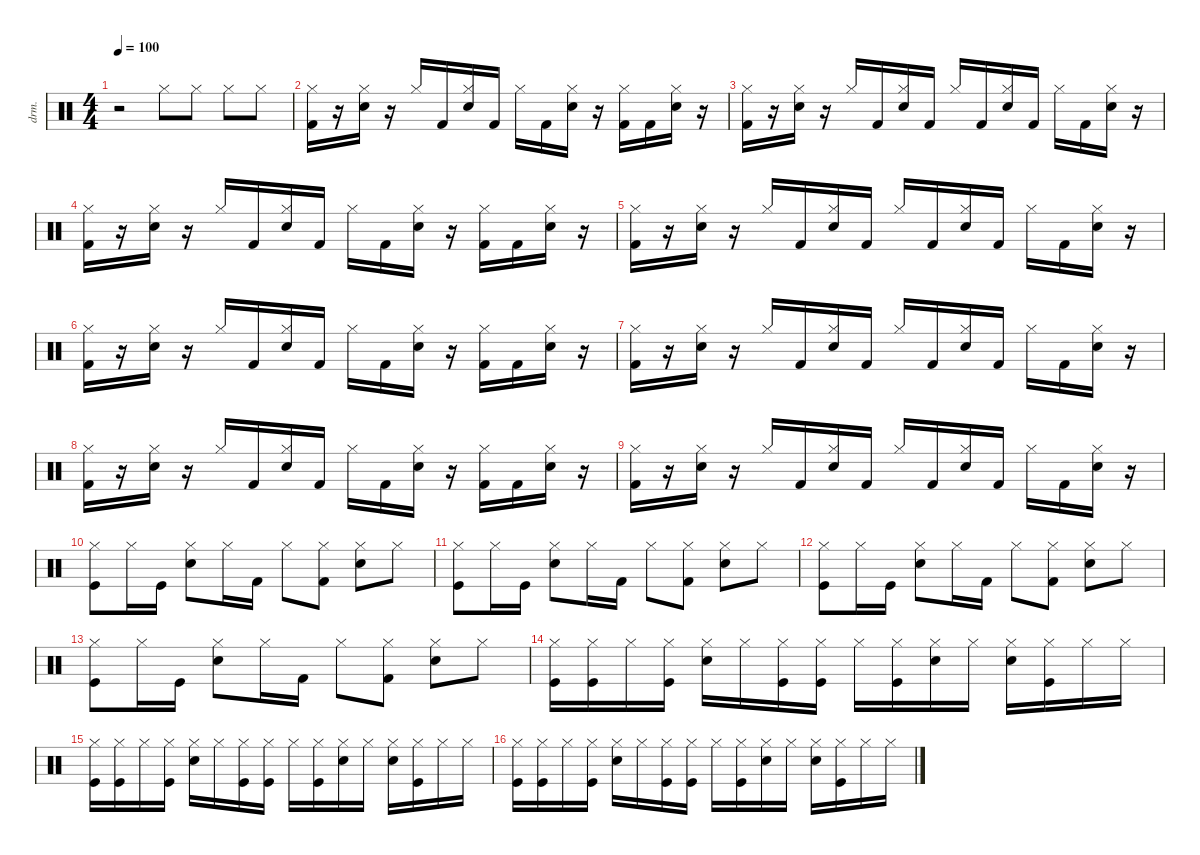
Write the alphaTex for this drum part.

\defaultSystemsLayout 4
\hideDynamics
\bracketExtendMode nobrackets
\otherSystemsTrackNameOrientation horizontal
\track ("Drumkit" "drm.") {instrument percussion}
\staff {score}
\articulation defaults
\ts (4 4)
\tempo 100
\clef neutral
\ks c
r.2{dy mf beam Down} "Hi-Hat (closed)".8{beam Down} "Hi-Hat (closed)".8{beam Down} "Hi-Hat (closed)".8{beam Down} "Hi-Hat (closed)".8{beam Down} |
("Hi-Hat (closed)" "Kick (hit) 2").16{beam Down} r.16{beam Down} ("Hi-Hat (closed)" "Snare (hit) 2").16{beam Down} r.16{beam Down} "Hi-Hat (closed)".16{beam Up} "Kick (hit) 2".16{beam Up} ("Hi-Hat (closed)" "Snare (hit) 2").16{beam Up} "Kick (hit) 2".16{beam Up} "Hi-Hat (closed)".16{beam Down} "Kick (hit) 2".16{beam Down} ("Hi-Hat (closed)" "Snare (hit) 2").16{beam Down} r.16{beam Down} ("Hi-Hat (closed)" "Kick (hit) 2").16{beam Down} "Kick (hit) 2".16{beam Down} ("Hi-Hat (closed)" "Snare (hit) 2").16{beam Down} r.16{beam Down} |
("Hi-Hat (closed)" "Kick (hit) 2").16{beam Down} r.16{beam Down} ("Hi-Hat (closed)" "Snare (hit) 2").16{beam Down} r.16{beam Down} "Hi-Hat (closed)".16{beam Up} "Kick (hit) 2".16{beam Up} ("Hi-Hat (closed)" "Snare (hit) 2").16{beam Up} "Kick (hit) 2".16{beam Up} "Hi-Hat (closed)".16{beam Up} "Kick (hit) 2".16{beam Up} ("Hi-Hat (closed)" "Snare (hit) 2").16{beam Up} "Kick (hit) 2".16{beam Up} "Hi-Hat (closed)".16{beam Down} "Kick (hit) 2".16{beam Down} ("Hi-Hat (closed)" "Snare (hit) 2").16{beam Down} r.16{beam Down} |
("Hi-Hat (closed)" "Kick (hit) 2").16{beam Down} r.16{beam Down} ("Hi-Hat (closed)" "Snare (hit) 2").16{beam Down} r.16{beam Down} "Hi-Hat (closed)".16{beam Up} "Kick (hit) 2".16{beam Up} ("Hi-Hat (closed)" "Snare (hit) 2").16{beam Up} "Kick (hit) 2".16{beam Up} "Hi-Hat (closed)".16{beam Down} "Kick (hit) 2".16{beam Down} ("Hi-Hat (closed)" "Snare (hit) 2").16{beam Down} r.16{beam Down} ("Hi-Hat (closed)" "Kick (hit) 2").16{beam Down} "Kick (hit) 2".16{beam Down} ("Hi-Hat (closed)" "Snare (hit) 2").16{beam Down} r.16{beam Down} |
("Hi-Hat (closed)" "Kick (hit) 2").16{beam Down} r.16{beam Down} ("Hi-Hat (closed)" "Snare (hit) 2").16{beam Down} r.16{beam Down} "Hi-Hat (closed)".16{beam Up} "Kick (hit) 2".16{beam Up} ("Hi-Hat (closed)" "Snare (hit) 2").16{beam Up} "Kick (hit) 2".16{beam Up} "Hi-Hat (closed)".16{beam Up} "Kick (hit) 2".16{beam Up} ("Hi-Hat (closed)" "Snare (hit) 2").16{beam Up} "Kick (hit) 2".16{beam Up} "Hi-Hat (closed)".16{beam Down} "Kick (hit) 2".16{beam Down} ("Hi-Hat (closed)" "Snare (hit) 2").16{beam Down} r.16{beam Down} |
("Hi-Hat (closed)" "Kick (hit) 2").16{beam Down} r.16{beam Down} ("Hi-Hat (closed)" "Snare (hit) 2").16{beam Down} r.16{beam Down} "Hi-Hat (closed)".16{beam Up} "Kick (hit) 2".16{beam Up} ("Hi-Hat (closed)" "Snare (hit) 2").16{beam Up} "Kick (hit) 2".16{beam Up} "Hi-Hat (closed)".16{beam Down} "Kick (hit) 2".16{beam Down} ("Hi-Hat (closed)" "Snare (hit) 2").16{beam Down} r.16{beam Down} ("Hi-Hat (closed)" "Kick (hit) 2").16{beam Down} "Kick (hit) 2".16{beam Down} ("Hi-Hat (closed)" "Snare (hit) 2").16{beam Down} r.16{beam Down} |
("Hi-Hat (closed)" "Kick (hit) 2").16{beam Down} r.16{beam Down} ("Hi-Hat (closed)" "Snare (hit) 2").16{beam Down} r.16{beam Down} "Hi-Hat (closed)".16{beam Up} "Kick (hit) 2".16{beam Up} ("Hi-Hat (closed)" "Snare (hit) 2").16{beam Up} "Kick (hit) 2".16{beam Up} "Hi-Hat (closed)".16{beam Up} "Kick (hit) 2".16{beam Up} ("Hi-Hat (closed)" "Snare (hit) 2").16{beam Up} "Kick (hit) 2".16{beam Up} "Hi-Hat (closed)".16{beam Down} "Kick (hit) 2".16{beam Down} ("Hi-Hat (closed)" "Snare (hit) 2").16{beam Down} r.16{beam Down} |
("Hi-Hat (closed)" "Kick (hit) 2").16{beam Down} r.16{beam Down} ("Hi-Hat (closed)" "Snare (hit) 2").16{beam Down} r.16{beam Down} "Hi-Hat (closed)".16{beam Up} "Kick (hit) 2".16{beam Up} ("Hi-Hat (closed)" "Snare (hit) 2").16{beam Up} "Kick (hit) 2".16{beam Up} "Hi-Hat (closed)".16{beam Down} "Kick (hit) 2".16{beam Down} ("Hi-Hat (closed)" "Snare (hit) 2").16{beam Down} r.16{beam Down} ("Hi-Hat (closed)" "Kick (hit) 2").16{beam Down} "Kick (hit) 2".16{beam Down} ("Hi-Hat (closed)" "Snare (hit) 2").16{beam Down} r.16{beam Down} |
("Hi-Hat (closed)" "Kick (hit) 2").16{beam Down} r.16{beam Down} ("Hi-Hat (closed)" "Snare (hit) 2").16{beam Down} r.16{beam Down} "Hi-Hat (closed)".16{beam Up} "Kick (hit) 2".16{beam Up} ("Hi-Hat (closed)" "Snare (hit) 2").16{beam Up} "Kick (hit) 2".16{beam Up} "Hi-Hat (closed)".16{beam Up} "Kick (hit) 2".16{beam Up} ("Hi-Hat (closed)" "Snare (hit) 2").16{beam Up} "Kick (hit) 2".16{beam Up} "Hi-Hat (closed)".16{beam Down} "Kick (hit) 2".16{beam Down} ("Hi-Hat (closed)" "Snare (hit) 2").16{beam Down} r.16{beam Down} |
("Kick (hit)" "Hi-Hat (closed)").8{beam Down} "Hi-Hat (closed)".16{beam Down} "Kick (hit)".16{beam Down} ("Snare (hit) 2" "Hi-Hat (closed)").8{beam Down} "Hi-Hat (closed)".16{beam Down} "Kick (hit) 2".16{beam Down} "Hi-Hat (closed)".8{beam Down} ("Kick (hit) 2" "Hi-Hat (closed)").8{beam Down} ("Hi-Hat (closed)" "Snare (hit) 2").8{beam Down} "Hi-Hat (closed)".8{beam Down} |
("Kick (hit)" "Hi-Hat (closed)").8{beam Down} "Hi-Hat (closed)".16{beam Down} "Kick (hit)".16{beam Down} ("Snare (hit) 2" "Hi-Hat (closed)").8{beam Down} "Hi-Hat (closed)".16{beam Down} "Kick (hit) 2".16{beam Down} "Hi-Hat (closed)".8{beam Down} ("Kick (hit) 2" "Hi-Hat (closed)").8{beam Down} ("Hi-Hat (closed)" "Snare (hit) 2").8{beam Down} "Hi-Hat (closed)".8{beam Down} |
("Kick (hit)" "Hi-Hat (closed)").8{beam Down} "Hi-Hat (closed)".16{beam Down} "Kick (hit)".16{beam Down} ("Snare (hit) 2" "Hi-Hat (closed)").8{beam Down} "Hi-Hat (closed)".16{beam Down} "Kick (hit) 2".16{beam Down} "Hi-Hat (closed)".8{beam Down} ("Kick (hit) 2" "Hi-Hat (closed)").8{beam Down} ("Hi-Hat (closed)" "Snare (hit) 2").8{beam Down} "Hi-Hat (closed)".8{beam Down} |
("Kick (hit)" "Hi-Hat (closed)").8{beam Down} "Hi-Hat (closed)".16{beam Down} "Kick (hit)".16{beam Down} ("Snare (hit) 2" "Hi-Hat (closed)").8{beam Down} "Hi-Hat (closed)".16{beam Down} "Kick (hit) 2".16{beam Down} "Hi-Hat (closed)".8{beam Down} ("Kick (hit) 2" "Hi-Hat (closed)").8{beam Down} ("Hi-Hat (closed)" "Snare (hit) 2").8{beam Down} "Hi-Hat (closed)".8{beam Down} |
("Kick (hit)" "Hi-Hat (closed)").16{beam Down} ("Kick (hit)" "Hi-Hat (closed)").16{beam Down} "Hi-Hat (closed)".16{beam Down} ("Kick (hit)" "Hi-Hat (closed)").16{beam Down} ("Snare (hit) 2" "Hi-Hat (closed)").16{beam Down} "Hi-Hat (closed)".16{beam Down} ("Hi-Hat (closed)" "Kick (hit)").16{beam Down} ("Hi-Hat (closed)" "Kick (hit)").16{beam Down} "Hi-Hat (closed)".16{beam Down} ("Hi-Hat (closed)" "Kick (hit)").16{beam Down} ("Hi-Hat (closed)" "Snare (hit) 2").16{beam Down} "Hi-Hat (closed)".16{beam Down} ("Hi-Hat (closed)" "Snare (hit) 2").16{beam Down} ("Hi-Hat (closed)" "Kick (hit)").16{beam Down} "Hi-Hat (closed)".16{beam Down} "Hi-Hat (closed)".16{beam Down} |
("Kick (hit)" "Hi-Hat (closed)").16{beam Down} ("Kick (hit)" "Hi-Hat (closed)").16{beam Down} "Hi-Hat (closed)".16{beam Down} ("Kick (hit)" "Hi-Hat (closed)").16{beam Down} ("Snare (hit) 2" "Hi-Hat (closed)").16{beam Down} "Hi-Hat (closed)".16{beam Down} ("Hi-Hat (closed)" "Kick (hit)").16{beam Down} ("Hi-Hat (closed)" "Kick (hit)").16{beam Down} "Hi-Hat (closed)".16{beam Down} ("Hi-Hat (closed)" "Kick (hit)").16{beam Down} ("Hi-Hat (closed)" "Snare (hit) 2").16{beam Down} "Hi-Hat (closed)".16{beam Down} ("Hi-Hat (closed)" "Snare (hit) 2").16{beam Down} ("Hi-Hat (closed)" "Kick (hit)").16{beam Down} "Hi-Hat (closed)".16{beam Down} "Hi-Hat (closed)".16{beam Down} |
("Kick (hit)" "Hi-Hat (closed)").16{beam Down} ("Kick (hit)" "Hi-Hat (closed)").16{beam Down} "Hi-Hat (closed)".16{beam Down} ("Kick (hit)" "Hi-Hat (closed)").16{beam Down} ("Snare (hit) 2" "Hi-Hat (closed)").16{beam Down} "Hi-Hat (closed)".16{beam Down} ("Hi-Hat (closed)" "Kick (hit)").16{beam Down} ("Hi-Hat (closed)" "Kick (hit)").16{beam Down} "Hi-Hat (closed)".16{beam Down} ("Hi-Hat (closed)" "Kick (hit)").16{beam Down} ("Hi-Hat (closed)" "Snare (hit) 2").16{beam Down} "Hi-Hat (closed)".16{beam Down} ("Hi-Hat (closed)" "Snare (hit) 2").16{beam Down} ("Hi-Hat (closed)" "Kick (hit)").16{beam Down} "Hi-Hat (closed)".16{beam Down} "Hi-Hat (closed)".16{beam Down}
